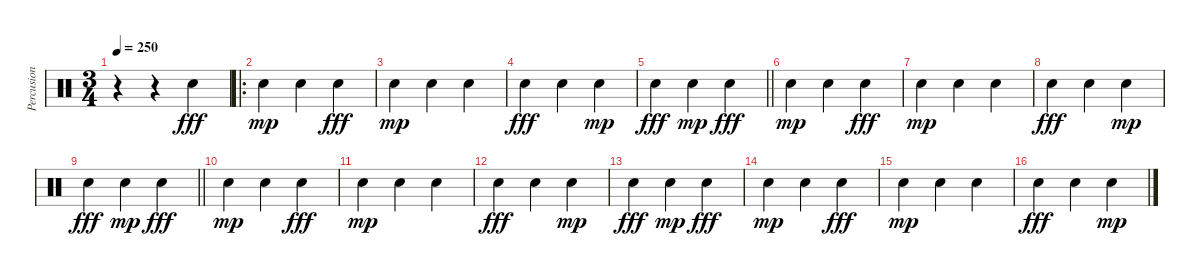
\track ("Percusion" "Percusion") {instrument percussion}
\staff {score}
\articulation defaults
\ts (3 4)
\tempo 250
\clef neutral
\ks c
r.4{dy fff} r.4 "Hand Clap (hit)".4 |
\ro "Hand Clap (hit)".4{dy mp} "Hand Clap (hit)".4 "Hand Clap (hit)".4{dy fff}
|
"Hand Clap (hit)".4{dy mp} "Hand Clap (hit)".4 "Hand Clap (hit)".4 |
"Hand Clap (hit)".4{dy fff} "Hand Clap (hit)".4 "Hand Clap (hit)".4{dy mp} |
\barLineRight lightlight "Hand Clap (hit)".4{dy fff} "Hand Clap (hit)".4{dy mp} "Hand Clap (hit)".4{dy fff}
|
"Hand Clap (hit)".4{dy mp} "Hand Clap (hit)".4 "Hand Clap (hit)".4{dy fff} |
"Hand Clap (hit)".4{dy mp} "Hand Clap (hit)".4 "Hand Clap (hit)".4 |
"Hand Clap (hit)".4{dy fff} "Hand Clap (hit)".4 "Hand Clap (hit)".4{dy mp} |
\barLineRight lightlight "Hand Clap (hit)".4{dy fff} "Hand Clap (hit)".4{dy mp} "Hand Clap (hit)".4{dy fff}
|
"Hand Clap (hit)".4{dy mp} "Hand Clap (hit)".4 "Hand Clap (hit)".4{dy fff} |
"Hand Clap (hit)".4{dy mp} "Hand Clap (hit)".4 "Hand Clap (hit)".4 |
"Hand Clap (hit)".4{dy fff} "Hand Clap (hit)".4 "Hand Clap (hit)".4{dy mp} |
"Hand Clap (hit)".4{dy fff} "Hand Clap (hit)".4{dy mp} "Hand Clap (hit)".4{dy fff} |
"Hand Clap (hit)".4{dy mp} "Hand Clap (hit)".4 "Hand Clap (hit)".4{dy fff} |
"Hand Clap (hit)".4{dy mp} "Hand Clap (hit)".4 "Hand Clap (hit)".4 |
"Hand Clap (hit)".4{dy fff} "Hand Clap (hit)".4 "Hand Clap (hit)".4{dy mp}
